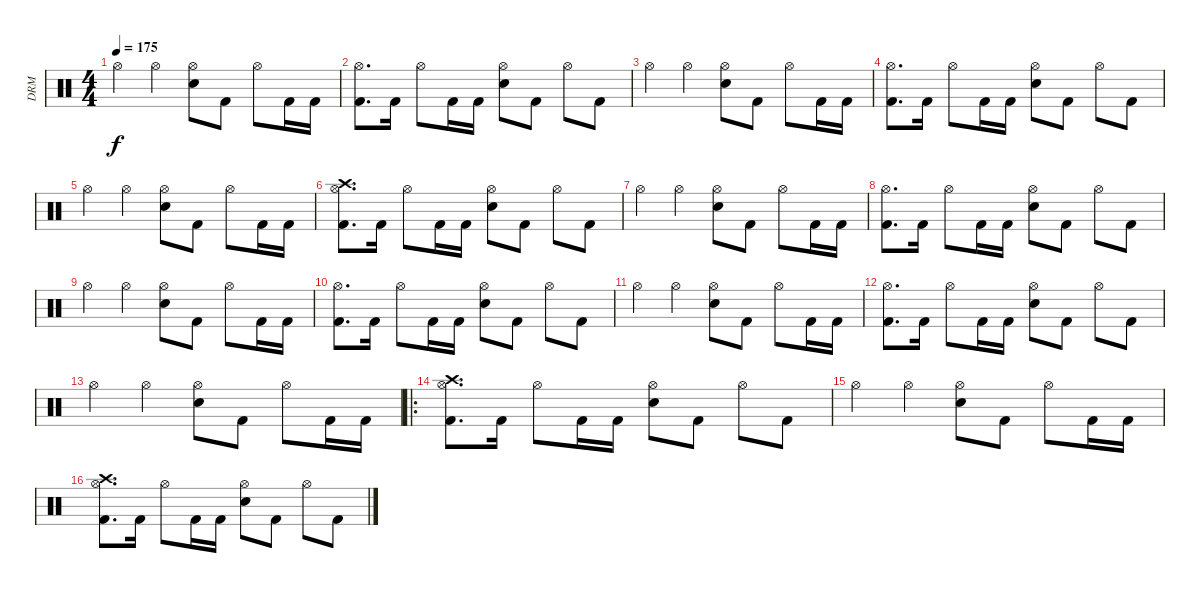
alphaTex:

\track ("DRM " "DRM ") {instrument percussion}
\staff {score}
\articulation defaults
\ts (4 4)
\tempo 175
\clef neutral
\ks c "Hi-Hat (open)".4{dy f} "Hi-Hat (open)".4
("Hi-Hat (open)" "Electric Snare (hit)").8 "Kick (hit) 2".8 "Hi-Hat (open)".8 "Kick (hit) 2".16 "Kick (hit) 2".16 |
("Hi-Hat (open)" "Kick (hit) 2").8{d} "Kick (hit) 2".16 "Hi-Hat (open)".8 "Kick (hit) 2".16 "Kick (hit) 2".16 ("Hi-Hat (open)" "Electric Snare (hit)").8 "Kick (hit) 2".8 "Hi-Hat (open)".8 "Kick (hit) 2".8 |
"Hi-Hat (open)".4 "Hi-Hat (open)".4 ("Hi-Hat (open)" "Electric Snare (hit)").8 "Kick (hit) 2".8 "Hi-Hat (open)".8 "Kick (hit) 2".16 "Kick (hit) 2".16 |
("Hi-Hat (open)" "Kick (hit) 2").8{d} "Kick (hit) 2".16 "Hi-Hat (open)".8 "Kick (hit) 2".16 "Kick (hit) 2".16 ("Hi-Hat (open)" "Electric Snare (hit)").8 "Kick (hit) 2".8 "Hi-Hat (open)".8 "Kick (hit) 2".8 |
"Hi-Hat (open)".4 "Hi-Hat (open)".4 ("Hi-Hat (open)" "Electric Snare (hit)").8 "Kick (hit) 2".8 "Hi-Hat (open)".8 "Kick (hit) 2".16 "Kick (hit) 2".16 |
("Hi-Hat (open)" "Crash high (hit)" "Kick (hit) 2").8{d} "Kick (hit) 2".16 "Hi-Hat (open)".8 "Kick (hit) 2".16 "Kick (hit) 2".16 ("Hi-Hat (open)" "Electric Snare (hit)").8 "Kick (hit) 2".8 "Hi-Hat (open)".8 "Kick (hit) 2".8 |
"Hi-Hat (open)".4 "Hi-Hat (open)".4 ("Hi-Hat (open)" "Electric Snare (hit)").8 "Kick (hit) 2".8 "Hi-Hat (open)".8 "Kick (hit) 2".16 "Kick (hit) 2".16 |
("Hi-Hat (open)" "Kick (hit) 2").8{d} "Kick (hit) 2".16 "Hi-Hat (open)".8 "Kick (hit) 2".16 "Kick (hit) 2".16 ("Hi-Hat (open)" "Electric Snare (hit)").8 "Kick (hit) 2".8 "Hi-Hat (open)".8 "Kick (hit) 2".8 |
"Hi-Hat (open)".4 "Hi-Hat (open)".4 ("Hi-Hat (open)" "Electric Snare (hit)").8 "Kick (hit) 2".8 "Hi-Hat (open)".8 "Kick (hit) 2".16 "Kick (hit) 2".16 |
("Hi-Hat (open)" "Kick (hit) 2").8{d} "Kick (hit) 2".16 "Hi-Hat (open)".8 "Kick (hit) 2".16 "Kick (hit) 2".16 ("Hi-Hat (open)" "Electric Snare (hit)").8 "Kick (hit) 2".8 "Hi-Hat (open)".8 "Kick (hit) 2".8 |
"Hi-Hat (open)".4 "Hi-Hat (open)".4 ("Hi-Hat (open)" "Electric Snare (hit)").8 "Kick (hit) 2".8 "Hi-Hat (open)".8 "Kick (hit) 2".16 "Kick (hit) 2".16 |
("Hi-Hat (open)" "Kick (hit) 2").8{d} "Kick (hit) 2".16 "Hi-Hat (open)".8 "Kick (hit) 2".16 "Kick (hit) 2".16 ("Hi-Hat (open)" "Electric Snare (hit)").8 "Kick (hit) 2".8 "Hi-Hat (open)".8 "Kick (hit) 2".8 |
"Hi-Hat (open)".4 "Hi-Hat (open)".4 ("Hi-Hat (open)" "Electric Snare (hit)").8 "Kick (hit) 2".8 "Hi-Hat (open)".8 "Kick (hit) 2".16 "Kick (hit) 2".16 |
\ro
("Hi-Hat (open)" "Crash high (hit)" "Kick (hit) 2").8{d volume 15} "Kick (hit) 2".16 "Hi-Hat (open)".8 "Kick (hit) 2".16 "Kick (hit) 2".16 ("Hi-Hat (open)" "Electric Snare (hit)").8 "Kick (hit) 2".8 "Hi-Hat (open)".8 "Kick (hit) 2".8 |
"Hi-Hat (open)".4 "Hi-Hat (open)".4 ("Hi-Hat (open)" "Electric Snare (hit)").8 "Kick (hit) 2".8 "Hi-Hat (open)".8 "Kick (hit) 2".16 "Kick (hit) 2".16 |
("Hi-Hat (open)" "Crash high (hit)" "Kick (hit) 2").8{d volume 15} "Kick (hit) 2".16 "Hi-Hat (open)".8 "Kick (hit) 2".16 "Kick (hit) 2".16 ("Hi-Hat (open)" "Electric Snare (hit)").8 "Kick (hit) 2".8 "Hi-Hat (open)".8 "Kick (hit) 2".8
